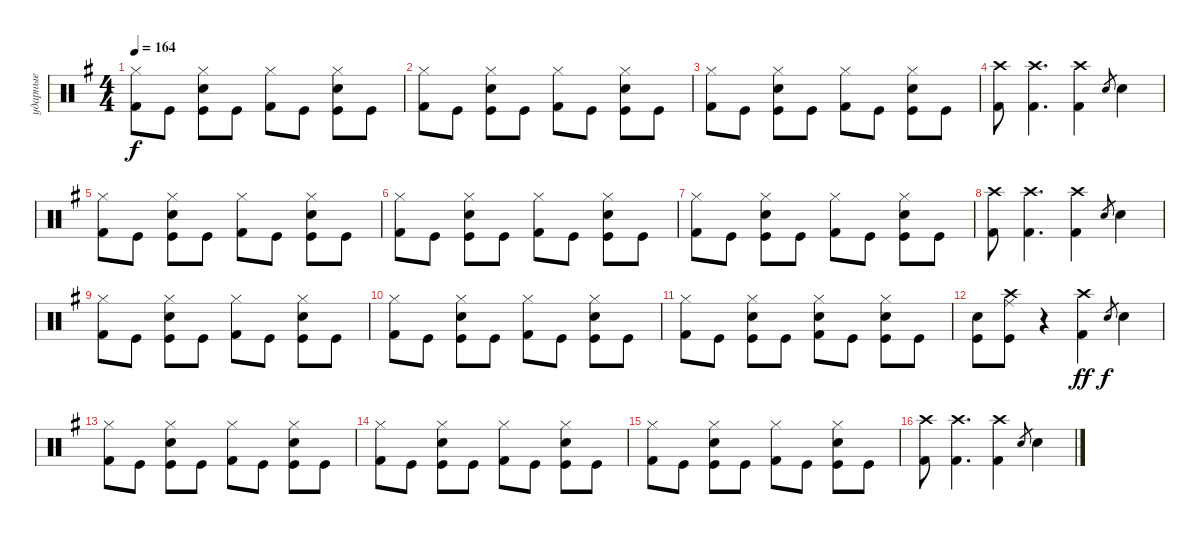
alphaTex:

\track ("ударные" "ударные") {instrument percussion}
\staff {score}
\articulation defaults
\ts (4 4)
\tempo 164
\clef neutral
\ks eminor
("Hi-Hat (closed)" "Kick (hit) 2").8{dy f} "Kick (hit)".8 ("Snare (hit) 2" "Hi-Hat (closed)" "Kick (hit)").8 "Kick (hit)".8 ("Hi-Hat (closed)" "Kick (hit) 2").8 "Kick (hit)".8 ("Hi-Hat (closed)" "Kick (hit)" "Snare (hit) 2").8 "Kick (hit)".8 |
("Hi-Hat (closed)" "Kick (hit) 2").8 "Kick (hit)".8 ("Snare (hit) 2" "Hi-Hat (closed)" "Kick (hit)").8 "Kick (hit)".8 ("Hi-Hat (closed)" "Kick (hit) 2").8 "Kick (hit)".8 ("Hi-Hat (closed)" "Kick (hit)" "Snare (hit) 2").8 "Kick (hit)".8 |
("Hi-Hat (closed)" "Kick (hit) 2").8 "Kick (hit)".8 ("Snare (hit) 2" "Hi-Hat (closed)" "Kick (hit)").8 "Kick (hit)".8 ("Hi-Hat (closed)" "Kick (hit) 2").8 "Kick (hit)".8 ("Hi-Hat (closed)" "Kick (hit)" "Snare (hit) 2").8 "Kick (hit)".8 |
("Crash high (hit)" "Kick (hit) 2").8 ("Crash high (hit)" "Kick (hit) 2").4{d} ("Crash high (hit)" "Kick (hit) 2").4 "Snare (hit) 2".8{gr} "Snare (hit) 2".4 |
("Hi-Hat (closed)" "Kick (hit) 2").8 "Kick (hit)".8 ("Snare (hit) 2" "Hi-Hat (closed)" "Kick (hit)").8 "Kick (hit)".8 ("Hi-Hat (closed)" "Kick (hit) 2").8 "Kick (hit)".8 ("Hi-Hat (closed)" "Kick (hit)" "Snare (hit) 2").8 "Kick (hit)".8 |
("Hi-Hat (closed)" "Kick (hit) 2").8 "Kick (hit)".8 ("Snare (hit) 2" "Hi-Hat (closed)" "Kick (hit)").8 "Kick (hit)".8 ("Hi-Hat (closed)" "Kick (hit) 2").8 "Kick (hit)".8 ("Hi-Hat (closed)" "Kick (hit)" "Snare (hit) 2").8 "Kick (hit)".8 |
("Hi-Hat (closed)" "Kick (hit) 2").8 "Kick (hit)".8 ("Snare (hit) 2" "Hi-Hat (closed)" "Kick (hit)").8 "Kick (hit)".8 ("Hi-Hat (closed)" "Kick (hit) 2").8 "Kick (hit)".8 ("Hi-Hat (closed)" "Kick (hit)" "Snare (hit) 2").8 "Kick (hit)".8 |
("Crash high (hit)" "Kick (hit) 2").8 ("Crash high (hit)" "Kick (hit) 2").4{d} ("Crash high (hit)" "Kick (hit) 2").4 "Snare (hit) 2".8{gr} "Snare (hit) 2".4 |
("Hi-Hat (closed)" "Kick (hit) 2").8 "Kick (hit)".8 ("Snare (hit) 2" "Hi-Hat (closed)" "Kick (hit)").8 "Kick (hit)".8 ("Hi-Hat (closed)" "Kick (hit) 2").8 "Kick (hit)".8 ("Hi-Hat (closed)" "Kick (hit)" "Snare (hit) 2").8 "Kick (hit)".8 |
("Hi-Hat (closed)" "Kick (hit) 2").8 "Kick (hit)".8 ("Snare (hit) 2" "Hi-Hat (closed)" "Kick (hit)").8 "Kick (hit)".8 ("Hi-Hat (closed)" "Kick (hit) 2").8 "Kick (hit)".8 ("Hi-Hat (closed)" "Kick (hit)" "Snare (hit) 2").8 "Kick (hit)".8 |
("Hi-Hat (closed)" "Kick (hit) 2").8 "Kick (hit)".8 ("Snare (hit) 2" "Hi-Hat (closed)" "Kick (hit)").8 "Kick (hit)".8 ("Hi-Hat (closed)" "Snare (hit) 2" "Kick (hit) 2").8 "Kick (hit)".8 ("Hi-Hat (closed)" "Kick (hit)" "Snare (hit) 2").8 "Kick (hit)".8 |
("Kick (hit)" "Snare (hit) 2").8 ("Crash high (hit)" "Ride (middle)" "Kick (hit)").8 r.4 ("Crash high (hit)" "Kick (hit) 2").4{dy ff} "Snare (hit) 2".8{gr dy f} "Snare (hit) 2".4 |
("Hi-Hat (closed)" "Kick (hit) 2").8 "Kick (hit)".8 ("Snare (hit) 2" "Hi-Hat (closed)" "Kick (hit)").8 "Kick (hit)".8 ("Hi-Hat (closed)" "Kick (hit) 2").8 "Kick (hit)".8 ("Hi-Hat (closed)" "Kick (hit)" "Snare (hit) 2").8 "Kick (hit)".8 |
("Hi-Hat (closed)" "Kick (hit) 2").8 "Kick (hit)".8 ("Snare (hit) 2" "Hi-Hat (closed)" "Kick (hit)").8 "Kick (hit)".8 ("Hi-Hat (closed)" "Kick (hit) 2").8 "Kick (hit)".8 ("Hi-Hat (closed)" "Kick (hit)" "Snare (hit) 2").8 "Kick (hit)".8 |
("Hi-Hat (closed)" "Kick (hit) 2").8 "Kick (hit)".8 ("Snare (hit) 2" "Hi-Hat (closed)" "Kick (hit)").8 "Kick (hit)".8 ("Hi-Hat (closed)" "Kick (hit) 2").8 "Kick (hit)".8 ("Hi-Hat (closed)" "Kick (hit)" "Snare (hit) 2").8 "Kick (hit)".8 |
("Crash high (hit)" "Kick (hit) 2").8 ("Crash high (hit)" "Kick (hit) 2").4{d} ("Crash high (hit)" "Kick (hit) 2").4 "Snare (hit) 2".8{gr} "Snare (hit) 2".4
